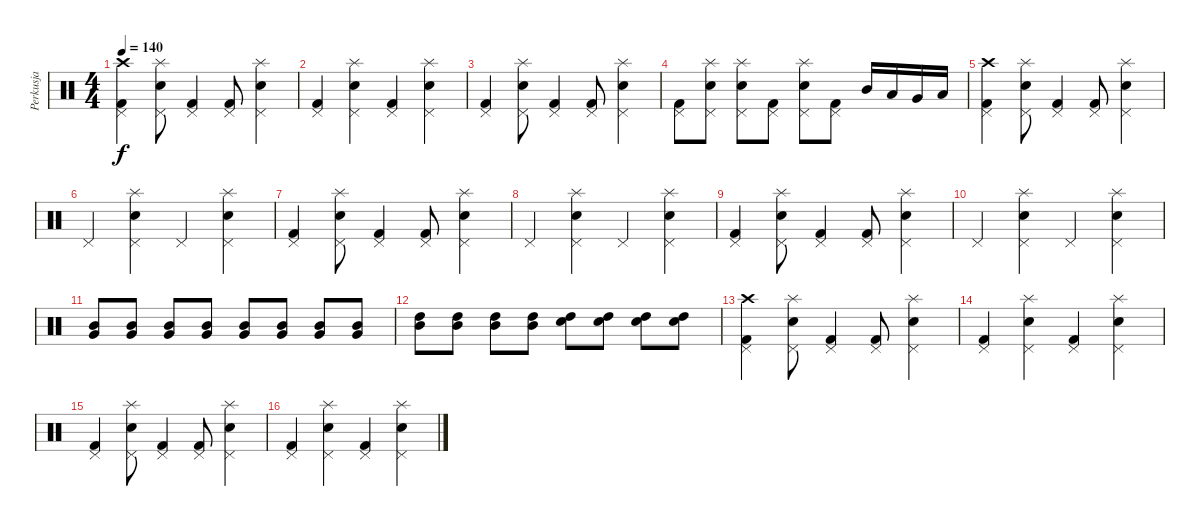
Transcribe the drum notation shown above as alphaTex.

\track ("Perkusja" "Perkusja") {instrument percussion}
\staff {score}
\articulation defaults
\ts (4 4)
\tempo 140
\clef neutral
\ks c
("Pedal Hi-Hat (hit)" "Kick (hit) 2" "Crash high (hit)").4{dy f} ("Pedal Hi-Hat (hit)" "Snare (hit) 2" "Splash (hit)").8 ("Pedal Hi-Hat (hit)" "Kick (hit) 2").4 ("Pedal Hi-Hat (hit)" "Kick (hit) 2").8 ("Pedal Hi-Hat (hit)" "Snare (hit) 2" "Splash (hit)").4 |
("Pedal Hi-Hat (hit)" "Kick (hit) 2").4 ("Pedal Hi-Hat (hit)" "Snare (hit) 2" "Splash (hit)").4 ("Pedal Hi-Hat (hit)" "Kick (hit) 2").4 ("Pedal Hi-Hat (hit)" "Snare (hit) 2" "Splash (hit)").4 |
("Pedal Hi-Hat (hit)" "Kick (hit) 2").4 ("Pedal Hi-Hat (hit)" "Snare (hit) 2" "Splash (hit)").8 ("Pedal Hi-Hat (hit)" "Kick (hit) 2").4 ("Pedal Hi-Hat (hit)" "Kick (hit) 2").8 ("Pedal Hi-Hat (hit)" "Snare (hit) 2" "Splash (hit)").4 |
("Pedal Hi-Hat (hit)" "Kick (hit) 2").8 ("Pedal Hi-Hat (hit)" "Snare (hit) 2" "Splash (hit)").8 ("Pedal Hi-Hat (hit)" "Snare (hit) 2" "Splash (hit)").8 ("Pedal Hi-Hat (hit)" "Kick (hit) 2").8 ("Pedal Hi-Hat (hit)" "Snare (hit) 2" "Splash (hit)").8 ("Pedal Hi-Hat (hit)" "Kick (hit) 2").8 "Mid Tom (hit)".16 "Low Tom (hit)".16 "Very Low Tom (hit)".16 "Low Floor Tom (hit)".16 |
("Pedal Hi-Hat (hit)" "Kick (hit) 2" "Crash high (hit)").4 ("Pedal Hi-Hat (hit)" "Snare (hit) 2" "Splash (hit)").8 ("Pedal Hi-Hat (hit)" "Kick (hit) 2").4 ("Pedal Hi-Hat (hit)" "Kick (hit) 2").8 ("Pedal Hi-Hat (hit)" "Snare (hit) 2" "Splash (hit)").4 |
"Pedal Hi-Hat (hit)".4 ("Pedal Hi-Hat (hit)" "Snare (hit) 2" "Splash (hit)").4 "Pedal Hi-Hat (hit)".4 ("Pedal Hi-Hat (hit)" "Snare (hit) 2" "Splash (hit)").4 |
("Pedal Hi-Hat (hit)" "Kick (hit) 2").4 ("Pedal Hi-Hat (hit)" "Snare (hit) 2" "Splash (hit)").8 ("Pedal Hi-Hat (hit)" "Kick (hit) 2").4 ("Pedal Hi-Hat (hit)" "Kick (hit) 2").8 ("Pedal Hi-Hat (hit)" "Snare (hit) 2" "Splash (hit)").4 |
"Pedal Hi-Hat (hit)".4 ("Pedal Hi-Hat (hit)" "Snare (hit) 2" "Splash (hit)").4 "Pedal Hi-Hat (hit)".4 ("Pedal Hi-Hat (hit)" "Snare (hit) 2" "Splash (hit)").4 |
("Pedal Hi-Hat (hit)" "Kick (hit) 2").4 ("Pedal Hi-Hat (hit)" "Snare (hit) 2" "Splash (hit)").8 ("Pedal Hi-Hat (hit)" "Kick (hit) 2").4 ("Pedal Hi-Hat (hit)" "Kick (hit) 2").8 ("Pedal Hi-Hat (hit)" "Snare (hit) 2" "Splash (hit)").4 |
"Pedal Hi-Hat (hit)".4 ("Pedal Hi-Hat (hit)" "Snare (hit) 2" "Splash (hit)").4 "Pedal Hi-Hat (hit)".4 ("Pedal Hi-Hat (hit)" "Snare (hit) 2" "Splash (hit)").4 |
("Mid Tom (hit)" "Very Low Tom (hit)").8 ("Mid Tom (hit)" "Very Low Tom (hit)").8 ("Mid Tom (hit)" "Very Low Tom (hit)").8 ("Mid Tom (hit)" "Very Low Tom (hit)").8 ("Mid Tom (hit)" "Very Low Tom (hit)").8 ("Mid Tom (hit)" "Very Low Tom (hit)").8 ("Mid Tom (hit)" "Very Low Tom (hit)").8 ("Mid Tom (hit)" "Very Low Tom (hit)").8 |
("High Tom (hit)" "Mid Tom (hit)").8 ("High Tom (hit)" "Mid Tom (hit)").8 ("High Tom (hit)" "Mid Tom (hit)").8 ("High Tom (hit)" "Mid Tom (hit)").8 ("High Tom (hit)" "Snare (hit) 2").8 ("High Tom (hit)" "Snare (hit) 2").8 ("High Tom (hit)" "Snare (hit) 2").8 ("High Tom (hit)" "Snare (hit) 2").8 |
("Pedal Hi-Hat (hit)" "Kick (hit) 2" "Crash high (hit)").4 ("Pedal Hi-Hat (hit)" "Snare (hit) 2" "Splash (hit)").8 ("Pedal Hi-Hat (hit)" "Kick (hit) 2").4 ("Pedal Hi-Hat (hit)" "Kick (hit) 2").8 ("Pedal Hi-Hat (hit)" "Snare (hit) 2" "Splash (hit)").4 |
("Pedal Hi-Hat (hit)" "Kick (hit) 2").4 ("Pedal Hi-Hat (hit)" "Snare (hit) 2" "Splash (hit)").4 ("Pedal Hi-Hat (hit)" "Kick (hit) 2").4 ("Pedal Hi-Hat (hit)" "Snare (hit) 2" "Splash (hit)").4 |
("Pedal Hi-Hat (hit)" "Kick (hit) 2").4 ("Pedal Hi-Hat (hit)" "Snare (hit) 2" "Splash (hit)").8 ("Pedal Hi-Hat (hit)" "Kick (hit) 2").4 ("Pedal Hi-Hat (hit)" "Kick (hit) 2").8 ("Pedal Hi-Hat (hit)" "Snare (hit) 2" "Splash (hit)").4 |
("Pedal Hi-Hat (hit)" "Kick (hit) 2").4 ("Pedal Hi-Hat (hit)" "Snare (hit) 2" "Splash (hit)").4 ("Pedal Hi-Hat (hit)" "Kick (hit) 2").4 ("Pedal Hi-Hat (hit)" "Snare (hit) 2" "Splash (hit)").4
